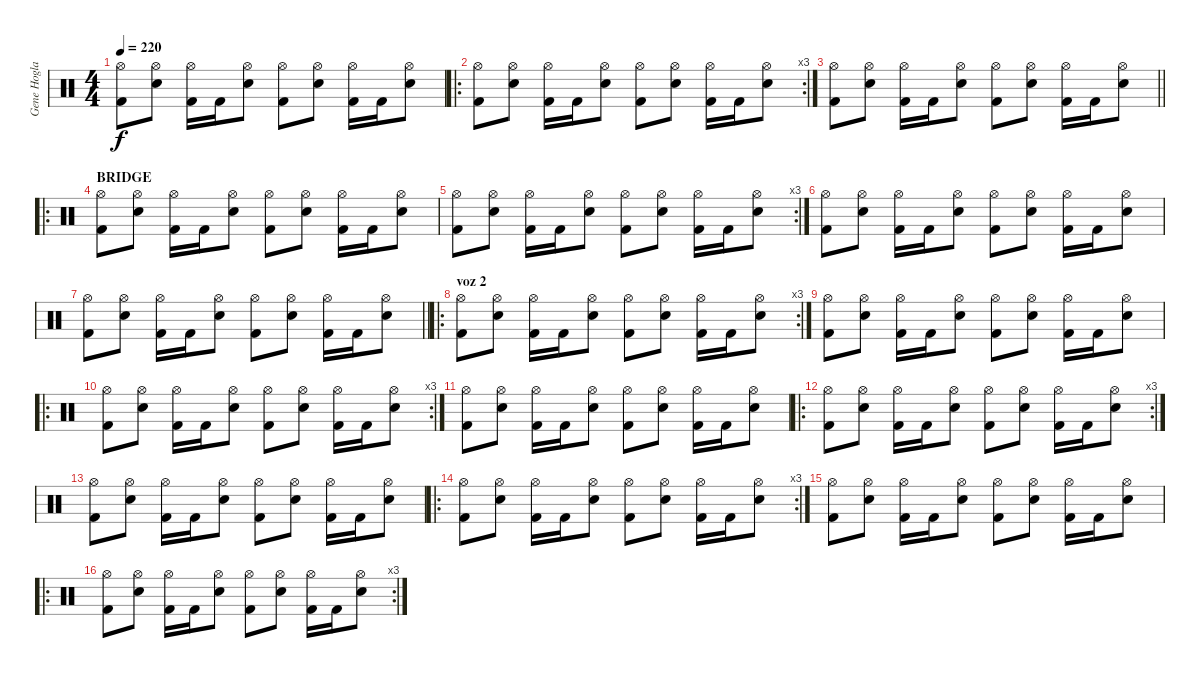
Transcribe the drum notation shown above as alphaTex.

\track ("Gene Hoglan" "Gene Hogla") {instrument percussion}
\staff {score}
\articulation defaults
\ts (4 4)
\tempo 220
\clef neutral
\ks c
("Hi-Hat (open)" "Kick (hit) 2").8{dy f} ("Hi-Hat (open)" "Electric Snare (hit)").8 ("Hi-Hat (open)" "Kick (hit) 2").16 "Kick (hit) 2".16 ("Hi-Hat (open)" "Electric Snare (hit)").8 ("Hi-Hat (open)" "Kick (hit) 2").8 ("Hi-Hat (open)" "Electric Snare (hit)").8 ("Hi-Hat (open)" "Kick (hit) 2").16 "Kick (hit) 2".16 ("Hi-Hat (open)" "Electric Snare (hit)").8 |
\ro
\rc 3
("Hi-Hat (open)" "Kick (hit) 2").8 ("Hi-Hat (open)" "Electric Snare (hit)").8 ("Hi-Hat (open)" "Kick (hit) 2").16 "Kick (hit) 2".16 ("Hi-Hat (open)" "Electric Snare (hit)").8 ("Hi-Hat (open)" "Kick (hit) 2").8 ("Hi-Hat (open)" "Electric Snare (hit)").8 ("Hi-Hat (open)" "Kick (hit) 2").16 "Kick (hit) 2".16 ("Hi-Hat (open)" "Electric Snare (hit)").8 |
\barLineRight lightlight
("Hi-Hat (open)" "Kick (hit) 2").8 ("Hi-Hat (open)" "Electric Snare (hit)").8 ("Hi-Hat (open)" "Kick (hit) 2").16 "Kick (hit) 2".16 ("Hi-Hat (open)" "Electric Snare (hit)").8 ("Hi-Hat (open)" "Kick (hit) 2").8 ("Hi-Hat (open)" "Electric Snare (hit)").8 ("Hi-Hat (open)" "Kick (hit) 2").16 "Kick (hit) 2".16 ("Hi-Hat (open)" "Electric Snare (hit)").8 |
\ro
\section ("" "BRIDGE")
("Hi-Hat (open)" "Kick (hit) 2").8 ("Hi-Hat (open)" "Electric Snare (hit)").8 ("Hi-Hat (open)" "Kick (hit) 2").16 "Kick (hit) 2".16 ("Hi-Hat (open)" "Electric Snare (hit)").8 ("Hi-Hat (open)" "Kick (hit) 2").8 ("Hi-Hat (open)" "Electric Snare (hit)").8 ("Hi-Hat (open)" "Kick (hit) 2").16 "Kick (hit) 2".16 ("Hi-Hat (open)" "Electric Snare (hit)").8 |
\rc 3
("Hi-Hat (open)" "Kick (hit) 2").8 ("Hi-Hat (open)" "Electric Snare (hit)").8 ("Hi-Hat (open)" "Kick (hit) 2").16 "Kick (hit) 2".16 ("Hi-Hat (open)" "Electric Snare (hit)").8 ("Hi-Hat (open)" "Kick (hit) 2").8 ("Hi-Hat (open)" "Electric Snare (hit)").8 ("Hi-Hat (open)" "Kick (hit) 2").16 "Kick (hit) 2".16 ("Hi-Hat (open)" "Electric Snare (hit)").8 |
("Hi-Hat (open)" "Kick (hit) 2").8 ("Hi-Hat (open)" "Electric Snare (hit)").8 ("Hi-Hat (open)" "Kick (hit) 2").16 "Kick (hit) 2".16 ("Hi-Hat (open)" "Electric Snare (hit)").8 ("Hi-Hat (open)" "Kick (hit) 2").8 ("Hi-Hat (open)" "Electric Snare (hit)").8 ("Hi-Hat (open)" "Kick (hit) 2").16 "Kick (hit) 2".16 ("Hi-Hat (open)" "Electric Snare (hit)").8 |
\barLineRight lightlight
("Hi-Hat (open)" "Kick (hit) 2").8 ("Hi-Hat (open)" "Electric Snare (hit)").8 ("Hi-Hat (open)" "Kick (hit) 2").16 "Kick (hit) 2".16 ("Hi-Hat (open)" "Electric Snare (hit)").8 ("Hi-Hat (open)" "Kick (hit) 2").8 ("Hi-Hat (open)" "Electric Snare (hit)").8 ("Hi-Hat (open)" "Kick (hit) 2").16 "Kick (hit) 2".16 ("Hi-Hat (open)" "Electric Snare (hit)").8 |
\ro
\rc 3
\section ("" "voz 2")
("Hi-Hat (open)" "Kick (hit) 2").8 ("Hi-Hat (open)" "Electric Snare (hit)").8 ("Hi-Hat (open)" "Kick (hit) 2").16 "Kick (hit) 2".16 ("Hi-Hat (open)" "Electric Snare (hit)").8 ("Hi-Hat (open)" "Kick (hit) 2").8 ("Hi-Hat (open)" "Electric Snare (hit)").8 ("Hi-Hat (open)" "Kick (hit) 2").16 "Kick (hit) 2".16 ("Hi-Hat (open)" "Electric Snare (hit)").8 |
("Hi-Hat (open)" "Kick (hit) 2").8 ("Hi-Hat (open)" "Electric Snare (hit)").8 ("Hi-Hat (open)" "Kick (hit) 2").16 "Kick (hit) 2".16 ("Hi-Hat (open)" "Electric Snare (hit)").8 ("Hi-Hat (open)" "Kick (hit) 2").8 ("Hi-Hat (open)" "Electric Snare (hit)").8 ("Hi-Hat (open)" "Kick (hit) 2").16 "Kick (hit) 2".16 ("Hi-Hat (open)" "Electric Snare (hit)").8 |
\ro
\rc 3
("Hi-Hat (open)" "Kick (hit) 2").8 ("Hi-Hat (open)" "Electric Snare (hit)").8 ("Hi-Hat (open)" "Kick (hit) 2").16 "Kick (hit) 2".16 ("Hi-Hat (open)" "Electric Snare (hit)").8 ("Hi-Hat (open)" "Kick (hit) 2").8 ("Hi-Hat (open)" "Electric Snare (hit)").8 ("Hi-Hat (open)" "Kick (hit) 2").16 "Kick (hit) 2".16 ("Hi-Hat (open)" "Electric Snare (hit)").8 |
("Hi-Hat (open)" "Kick (hit) 2").8 ("Hi-Hat (open)" "Electric Snare (hit)").8 ("Hi-Hat (open)" "Kick (hit) 2").16 "Kick (hit) 2".16 ("Hi-Hat (open)" "Electric Snare (hit)").8 ("Hi-Hat (open)" "Kick (hit) 2").8 ("Hi-Hat (open)" "Electric Snare (hit)").8 ("Hi-Hat (open)" "Kick (hit) 2").16 "Kick (hit) 2".16 ("Hi-Hat (open)" "Electric Snare (hit)").8 |
\ro
\rc 3
("Hi-Hat (open)" "Kick (hit) 2").8 ("Hi-Hat (open)" "Electric Snare (hit)").8 ("Hi-Hat (open)" "Kick (hit) 2").16 "Kick (hit) 2".16 ("Hi-Hat (open)" "Electric Snare (hit)").8 ("Hi-Hat (open)" "Kick (hit) 2").8 ("Hi-Hat (open)" "Electric Snare (hit)").8 ("Hi-Hat (open)" "Kick (hit) 2").16 "Kick (hit) 2".16 ("Hi-Hat (open)" "Electric Snare (hit)").8 |
("Hi-Hat (open)" "Kick (hit) 2").8 ("Hi-Hat (open)" "Electric Snare (hit)").8 ("Hi-Hat (open)" "Kick (hit) 2").16 "Kick (hit) 2".16 ("Hi-Hat (open)" "Electric Snare (hit)").8 ("Hi-Hat (open)" "Kick (hit) 2").8 ("Hi-Hat (open)" "Electric Snare (hit)").8 ("Hi-Hat (open)" "Kick (hit) 2").16 "Kick (hit) 2".16 ("Hi-Hat (open)" "Electric Snare (hit)").8 |
\ro
\rc 3
("Hi-Hat (open)" "Kick (hit) 2").8 ("Hi-Hat (open)" "Electric Snare (hit)").8 ("Hi-Hat (open)" "Kick (hit) 2").16 "Kick (hit) 2".16 ("Hi-Hat (open)" "Electric Snare (hit)").8 ("Hi-Hat (open)" "Kick (hit) 2").8 ("Hi-Hat (open)" "Electric Snare (hit)").8 ("Hi-Hat (open)" "Kick (hit) 2").16 "Kick (hit) 2".16 ("Hi-Hat (open)" "Electric Snare (hit)").8 |
("Hi-Hat (open)" "Kick (hit) 2").8 ("Hi-Hat (open)" "Electric Snare (hit)").8 ("Hi-Hat (open)" "Kick (hit) 2").16 "Kick (hit) 2".16 ("Hi-Hat (open)" "Electric Snare (hit)").8 ("Hi-Hat (open)" "Kick (hit) 2").8 ("Hi-Hat (open)" "Electric Snare (hit)").8 ("Hi-Hat (open)" "Kick (hit) 2").16 "Kick (hit) 2".16 ("Hi-Hat (open)" "Electric Snare (hit)").8 |
\ro
\rc 3
("Hi-Hat (open)" "Kick (hit) 2").8 ("Hi-Hat (open)" "Electric Snare (hit)").8 ("Hi-Hat (open)" "Kick (hit) 2").16 "Kick (hit) 2".16 ("Hi-Hat (open)" "Electric Snare (hit)").8 ("Hi-Hat (open)" "Kick (hit) 2").8 ("Hi-Hat (open)" "Electric Snare (hit)").8 ("Hi-Hat (open)" "Kick (hit) 2").16 "Kick (hit) 2".16 ("Hi-Hat (open)" "Electric Snare (hit)").8
